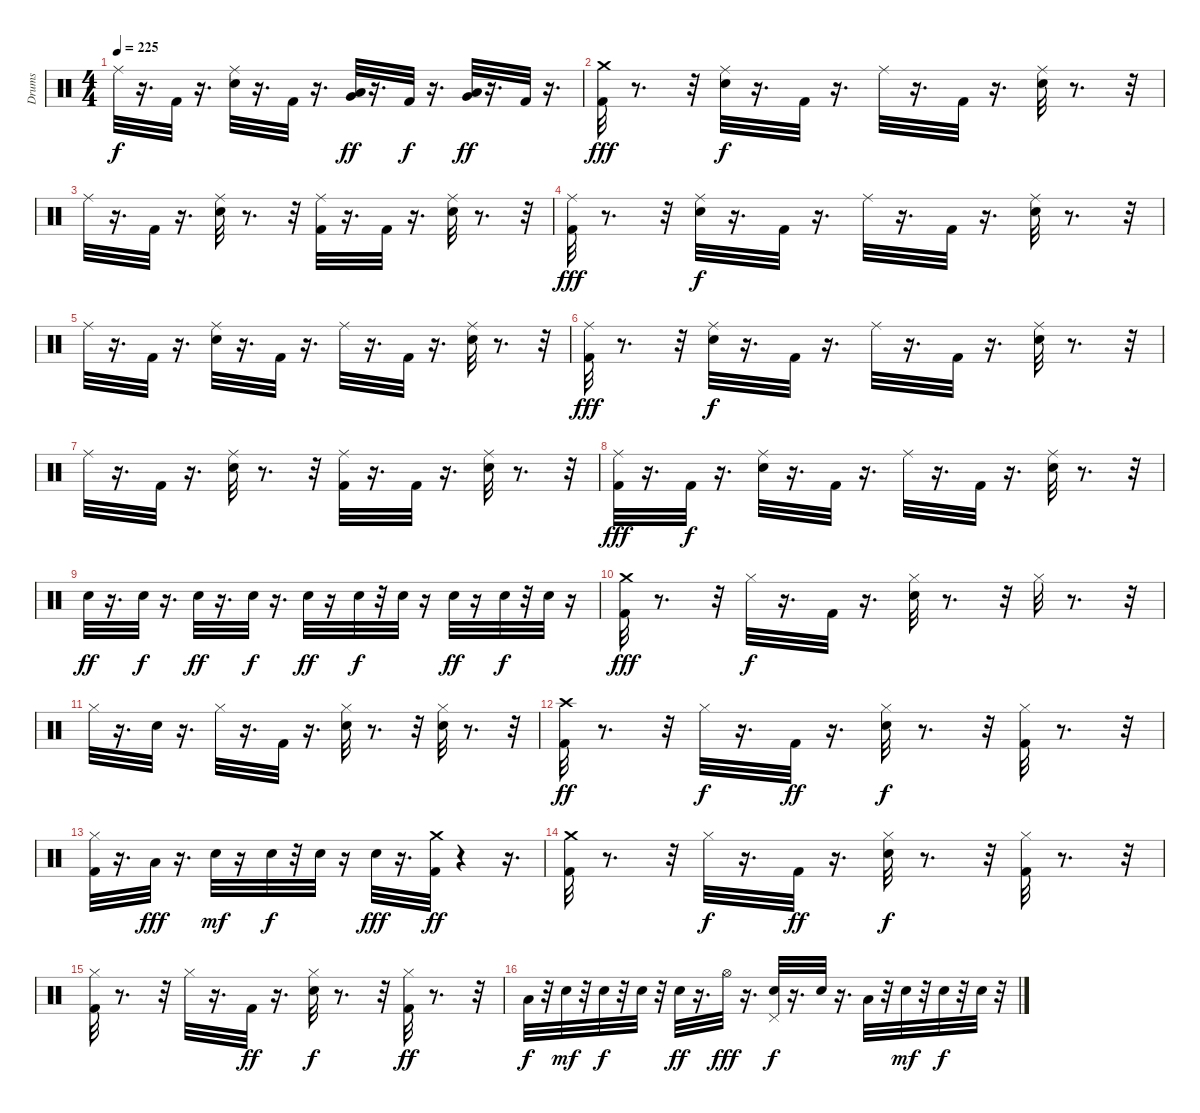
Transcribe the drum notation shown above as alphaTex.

\track ("Drums" "Drums") {instrument percussion}
\staff {score}
\articulation defaults
\ts (4 4)
\tempo 225
\clef neutral
\ks c "Ride (middle)".32{dy f}
r.16{d} "Kick (hit) 2".32 r.16{d} ("Ride (middle)" "Snare (hit) 2").32 r.16{d} "Kick (hit) 2".32 r.16{d} ("Low Tom (hit)" "Very Low Tom (hit)").32{dy ff} r.16{d} "Kick (hit) 2".32{dy f} r.16{d} ("Low Tom (hit)" "Very Low Tom (hit)").32{dy ff} r.16{d} "Kick (hit) 2".32 r.16{d} |
("Crash medium (hit)" "Kick (hit) 2").32{dy fff} r.8{d} r.32 ("Ride (middle)" "Snare (hit) 2").32{dy f} r.16{d} "Kick (hit) 2".32 r.16{d} "Ride (middle)".32 r.16{d} "Kick (hit) 2".32 r.16{d} ("Ride (middle)" "Snare (hit) 2").32 r.8{d} r.32 |
"Ride (middle)".32 r.16{d} "Kick (hit) 2".32 r.16{d} ("Ride (middle)" "Snare (hit) 2").32 r.8{d} r.32 ("Ride (middle)" "Kick (hit) 2").32 r.16{d} "Kick (hit) 2".32 r.16{d} ("Ride (middle)" "Snare (hit) 2").32 r.8{d} r.32 |
("Ride (middle)" "Kick (hit) 2").32{dy fff} r.8{d} r.32 ("Ride (middle)" "Snare (hit) 2").32{dy f} r.16{d} "Kick (hit) 2".32 r.16{d} "Ride (middle)".32 r.16{d} "Kick (hit) 2".32 r.16{d} ("Ride (middle)" "Snare (hit) 2").32 r.8{d} r.32 |
"Ride (middle)".32 r.16{d} "Kick (hit) 2".32 r.16{d} ("Ride (middle)" "Snare (hit) 2").32 r.16{d} "Kick (hit) 2".32 r.16{d} "Ride (middle)".32 r.16{d} "Kick (hit) 2".32 r.16{d} ("Ride (middle)" "Snare (hit) 2").32 r.8{d} r.32 |
("Ride (middle)" "Kick (hit) 2").32{dy fff} r.8{d} r.32 ("Ride (middle)" "Snare (hit) 2").32{dy f} r.16{d} "Kick (hit) 2".32 r.16{d} "Ride (middle)".32 r.16{d} "Kick (hit) 2".32 r.16{d} ("Ride (middle)" "Snare (hit) 2").32 r.8{d} r.32 |
"Ride (middle)".32 r.16{d} "Kick (hit) 2".32 r.16{d} ("Ride (middle)" "Snare (hit) 2").32 r.8{d} r.32 ("Ride (middle)" "Kick (hit) 2").32 r.16{d} "Kick (hit) 2".32 r.16{d} ("Ride (middle)" "Snare (hit) 2").32 r.8{d} r.32 |
("Ride (middle)" "Kick (hit) 2").32{dy fff} r.16{d} "Kick (hit) 2".32{dy f} r.16{d} ("Ride (middle)" "Snare (hit) 2").32 r.16{d} "Kick (hit) 2".32 r.16{d} "Ride (middle)".32 r.16{d} "Kick (hit) 2".32 r.16{d} ("Ride (middle)" "Snare (hit) 2").32 r.8{d} r.32 |
"Snare (hit) 2".32{dy ff} r.16{d} "Snare (hit) 2".32{dy f} r.16{d} "Snare (hit) 2".32{dy ff} r.16{d} "Snare (hit) 2".32{dy f} r.16{d} "Snare (hit) 2".32{dy ff} r.16 "Snare (hit) 2".32{dy f} r.32 "Snare (hit) 2".32 r.16 "Snare (hit) 2".32{dy ff} r.16 "Snare (hit) 2".32{dy f} r.32 "Snare (hit) 2".32 r.16 |
("Kick (hit) 2" "Crash medium (hit)").32{dy fff} r.8{d} r.32 "Hi-Hat (closed)".32{dy f} r.16{d} "Kick (hit) 2".32 r.16{d} ("Hi-Hat (closed)" "Snare (hit) 2").32 r.8{d} r.32 "Hi-Hat (closed)".32 r.8{d} r.32 |
"Hi-Hat (closed)".32 r.16{d} "Snare (hit) 2".32 r.16{d} "Hi-Hat (closed)".32 r.16{d} "Kick (hit) 2".32 r.16{d} ("Hi-Hat (closed)" "Snare (hit) 2").32 r.8{d} r.32 ("Hi-Hat (closed)" "Snare (hit) 2").32 r.8{d} r.32 |
("Crash high (hit)" "Kick (hit) 2").32{dy ff} r.8{d} r.32 "Hi-Hat (closed)".32{dy f} r.16{d} "Kick (hit) 2".32{dy ff} r.16{d} ("Hi-Hat (closed)" "Snare (hit) 2").32{dy f} r.8{d} r.32 ("Kick (hit) 2" "Hi-Hat (closed)").32 r.8{d} r.32 |
("Kick (hit) 2" "Hi-Hat (closed)").32 r.16{d} "Low Floor Tom (hit)".32{dy fff} r.16{d} "Snare (hit) 2".32{dy mf} r.16 "Snare (hit) 2".32{dy f} r.32 "Snare (hit) 2".32 r.16 "Snare (hit) 2".32{dy fff} r.16{d} ("Crash medium (hit)" "Kick (hit) 2").32{dy ff} r.4 r.16{d} |
("Kick (hit) 2" "Crash medium (hit)").32 r.8{d} r.32 "Hi-Hat (closed)".32{dy f} r.16{d} "Kick (hit) 2".32{dy ff} r.16{d} ("Snare (hit) 2" "Hi-Hat (closed)").32{dy f} r.8{d} r.32 ("Kick (hit) 2" "Hi-Hat (closed)").32 r.8{d} r.32 |
("Kick (hit) 2" "Hi-Hat (closed)").32 r.8{d} r.32 "Hi-Hat (closed)".32 r.16{d} "Kick (hit) 2".32{dy ff} r.16{d} ("Snare (hit) 2" "Hi-Hat (closed)").32{dy f} r.8{d} r.32 ("Hi-Hat (closed)" "Kick (hit) 2").32{dy ff} r.8{d} r.32 |
"Low Tom (hit)".32{dy f} r.32 "Snare (hit) 2".32{dy mf} r.32 "Snare (hit) 2".32{dy f} r.32 "Snare (hit) 2".32 r.32 "Snare (hit) 2".32{dy ff} r.16{d} "Hi-Hat (open)".32{dy fff} r.16{d} ("Pedal Hi-Hat (hit)" "Snare (hit) 2").32{dy f} r.16{d} "Snare (hit) 2".32 r.16{d} "Low Tom (hit)".32 r.32 "Snare (hit) 2".32{dy mf} r.32 "Snare (hit) 2".32{dy f} r.32 "Snare (hit) 2".32 r.32
